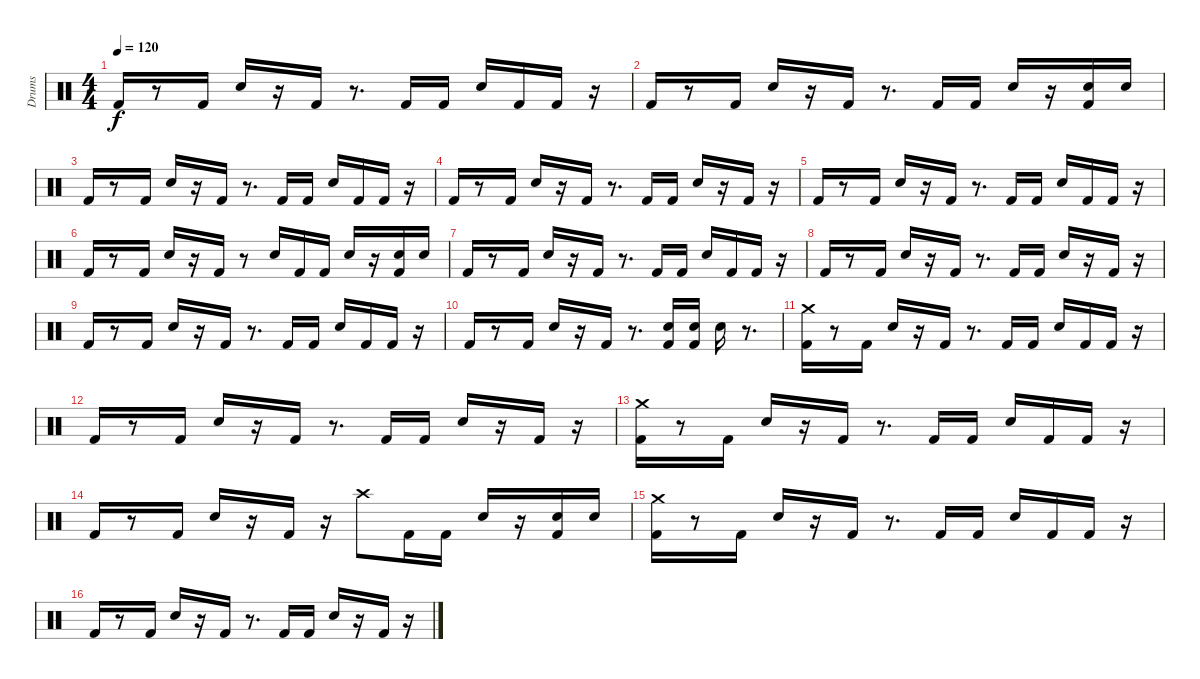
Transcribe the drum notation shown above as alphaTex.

\track ("Drums" "Drums") {instrument percussion}
\staff {score}
\articulation defaults
\ts (4 4)
\tempo 120
\clef neutral
\ks c "Kick (hit) 2".16{dy f}
r.8 "Kick (hit) 2".16 "Snare (hit) 2".16 r.16 "Kick (hit) 2".16 r.8{d} "Kick (hit) 2".16 "Kick (hit) 2".16 "Snare (hit) 2".16 "Kick (hit) 2".16 "Kick (hit) 2".16 r.16 |
"Kick (hit) 2".16 r.8 "Kick (hit) 2".16 "Snare (hit) 2".16 r.16 "Kick (hit) 2".16 r.8{d} "Kick (hit) 2".16 "Kick (hit) 2".16 "Snare (hit) 2".16 r.16 ("Kick (hit) 2" "Snare (hit) 2").16 "Snare (hit) 2".16 |
"Kick (hit) 2".16 r.8 "Kick (hit) 2".16 "Snare (hit) 2".16 r.16 "Kick (hit) 2".16 r.8{d} "Kick (hit) 2".16 "Kick (hit) 2".16 "Snare (hit) 2".16 "Kick (hit) 2".16 "Kick (hit) 2".16 r.16 |
"Kick (hit) 2".16 r.8 "Kick (hit) 2".16 "Snare (hit) 2".16 r.16 "Kick (hit) 2".16 r.8{d} "Kick (hit) 2".16 "Kick (hit) 2".16 "Snare (hit) 2".16 r.16 "Kick (hit) 2".16 r.16 |
"Kick (hit) 2".16 r.8 "Kick (hit) 2".16 "Snare (hit) 2".16 r.16 "Kick (hit) 2".16 r.8{d} "Kick (hit) 2".16 "Kick (hit) 2".16 "Snare (hit) 2".16 "Kick (hit) 2".16 "Kick (hit) 2".16 r.16 |
"Kick (hit) 2".16 r.8 "Kick (hit) 2".16 "Snare (hit) 2".16 r.16 "Kick (hit) 2".16 r.8 "Snare (hit) 2".16 "Kick (hit) 2".16 "Kick (hit) 2".16 "Snare (hit) 2".16 r.16 ("Kick (hit) 2" "Snare (hit) 2").16 "Snare (hit) 2".16 |
"Kick (hit) 2".16 r.8 "Kick (hit) 2".16 "Snare (hit) 2".16 r.16 "Kick (hit) 2".16 r.8{d} "Kick (hit) 2".16 "Kick (hit) 2".16 "Snare (hit) 2".16 "Kick (hit) 2".16 "Kick (hit) 2".16 r.16 |
"Kick (hit) 2".16 r.8 "Kick (hit) 2".16 "Snare (hit) 2".16 r.16 "Kick (hit) 2".16 r.8{d} "Kick (hit) 2".16 "Kick (hit) 2".16 "Snare (hit) 2".16 r.16 "Kick (hit) 2".16 r.16 |
"Kick (hit) 2".16 r.8 "Kick (hit) 2".16 "Snare (hit) 2".16 r.16 "Kick (hit) 2".16 r.8{d} "Kick (hit) 2".16 "Kick (hit) 2".16 "Snare (hit) 2".16 "Kick (hit) 2".16 "Kick (hit) 2".16 r.16 |
"Kick (hit) 2".16 r.8 "Kick (hit) 2".16 "Snare (hit) 2".16 r.16 "Kick (hit) 2".16 r.8{d} ("Kick (hit) 2" "Snare (hit) 2").16 ("Kick (hit) 2" "Snare (hit) 2").16 "Snare (hit) 2".16 r.8{d} |
("Kick (hit) 2" "Crash medium (hit)").16 r.8 "Kick (hit) 2".16 "Snare (hit) 2".16 r.16 "Kick (hit) 2".16 r.8{d} "Kick (hit) 2".16 "Kick (hit) 2".16 "Snare (hit) 2".16 "Kick (hit) 2".16 "Kick (hit) 2".16 r.16 |
"Kick (hit) 2".16 r.8 "Kick (hit) 2".16 "Snare (hit) 2".16 r.16 "Kick (hit) 2".16 r.8{d} "Kick (hit) 2".16 "Kick (hit) 2".16 "Snare (hit) 2".16 r.16 "Kick (hit) 2".16 r.16 |
("Kick (hit) 2" "Crash medium (hit)").16 r.8 "Kick (hit) 2".16 "Snare (hit) 2".16 r.16 "Kick (hit) 2".16 r.8{d} "Kick (hit) 2".16 "Kick (hit) 2".16 "Snare (hit) 2".16 "Kick (hit) 2".16 "Kick (hit) 2".16 r.16 |
"Kick (hit) 2".16 r.8 "Kick (hit) 2".16 "Snare (hit) 2".16 r.16 "Kick (hit) 2".16 r.16 "Crash high (hit)".8 "Kick (hit) 2".16 "Kick (hit) 2".16 "Snare (hit) 2".16 r.16 ("Kick (hit) 2" "Snare (hit) 2").16 "Snare (hit) 2".16 |
("Kick (hit) 2" "Crash medium (hit)").16 r.8 "Kick (hit) 2".16 "Snare (hit) 2".16 r.16 "Kick (hit) 2".16 r.8{d} "Kick (hit) 2".16 "Kick (hit) 2".16 "Snare (hit) 2".16 "Kick (hit) 2".16 "Kick (hit) 2".16 r.16 |
"Kick (hit) 2".16 r.8 "Kick (hit) 2".16 "Snare (hit) 2".16 r.16 "Kick (hit) 2".16 r.8{d} "Kick (hit) 2".16 "Kick (hit) 2".16 "Snare (hit) 2".16 r.16 "Kick (hit) 2".16 r.16
